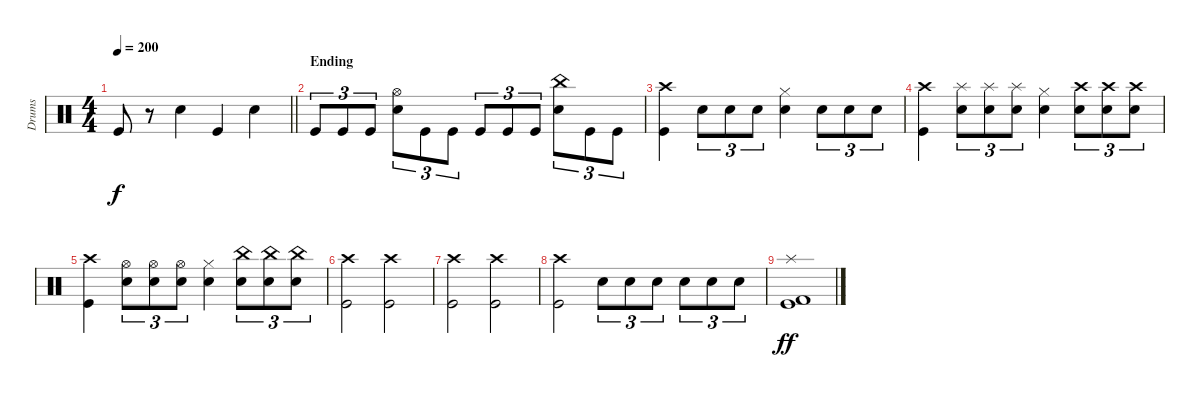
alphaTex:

\track ("Drums" "Drums") {instrument percussion}
\staff {score}
\articulation defaults
\ts (4 4)
\tempo 200
\clef neutral
\barLineRight lightlight
\ks c "Kick (hit)".8{dy f}
r.8 "Snare (hit) 2".4 "Kick (hit)".4 "Snare (hit) 2".4 |
\section ("" "Ending")
"Kick (hit)".8{tu (3 2)} "Kick (hit)".8{tu (3 2)} "Kick (hit)".8{tu (3 2)} ("Hi-Hat (open)" "Snare (hit) 2").8{tu (3 2)} "Kick (hit)".8{tu (3 2)} "Kick (hit)".8{tu (3 2)} "Kick (hit)".8{tu (3 2)} "Kick (hit)".8{tu (3 2)} "Kick (hit)".8{tu (3 2)} ("China (hit)" "Snare (hit) 2").8{tu (3 2)} "Kick (hit)".8{tu (3 2)} "Kick (hit)".8{tu (3 2)} |
("Crash high (hit)" "Kick (hit)").4 "Snare (hit) 2".8{tu (3 2)} "Snare (hit) 2".8{tu (3 2)} "Snare (hit) 2".8{tu (3 2)} ("Hi-Hat (closed)" "Snare (hit) 2").4 "Snare (hit) 2".8{tu (3 2)} "Snare (hit) 2".8{tu (3 2)} "Snare (hit) 2".8{tu (3 2)} |
("Crash high (hit)" "Kick (hit)").4 ("Splash (hit)" "Snare (hit) 2").8{tu (3 2)} ("Splash (hit)" "Snare (hit) 2").8{tu (3 2)} ("Splash (hit)" "Snare (hit) 2").8{tu (3 2)} ("Hi-Hat (closed)" "Snare (hit) 2").4 ("Crash high (hit)" "Snare (hit) 2").8{tu (3 2)} ("Crash high (hit)" "Snare (hit) 2").8{tu (3 2)} ("Crash high (hit)" "Snare (hit) 2").8{tu (3 2)} |
("Crash high (hit)" "Kick (hit)").4 ("Hi-Hat (open)" "Snare (hit) 2").8{tu (3 2)} ("Hi-Hat (open)" "Snare (hit) 2").8{tu (3 2)} ("Hi-Hat (open)" "Snare (hit) 2").8{tu (3 2)} ("Hi-Hat (closed)" "Snare (hit) 2").4 ("China (hit)" "Snare (hit) 2").8{tu (3 2)} ("China (hit)" "Snare (hit) 2").8{tu (3 2)} ("China (hit)" "Snare (hit) 2").8{tu (3 2)} |
("Crash high (hit)" "Kick (hit)").2 ("Crash high (hit)" "Kick (hit)").2 |
("Crash high (hit)" "Kick (hit)").2 ("Crash high (hit)" "Kick (hit)").2 |
("Crash high (hit)" "Kick (hit)").2 "Snare (hit) 2".8{tu (3 2)} "Snare (hit) 2".8{tu (3 2)} "Snare (hit) 2".8{tu (3 2)} "Snare (hit) 2".8{tu (3 2)} "Snare (hit) 2".8{tu (3 2)} "Snare (hit) 2".8{tu (3 2)} |
("Kick (hit) 2" "Splash (hit)" "Kick (hit)").1{dy ff}
